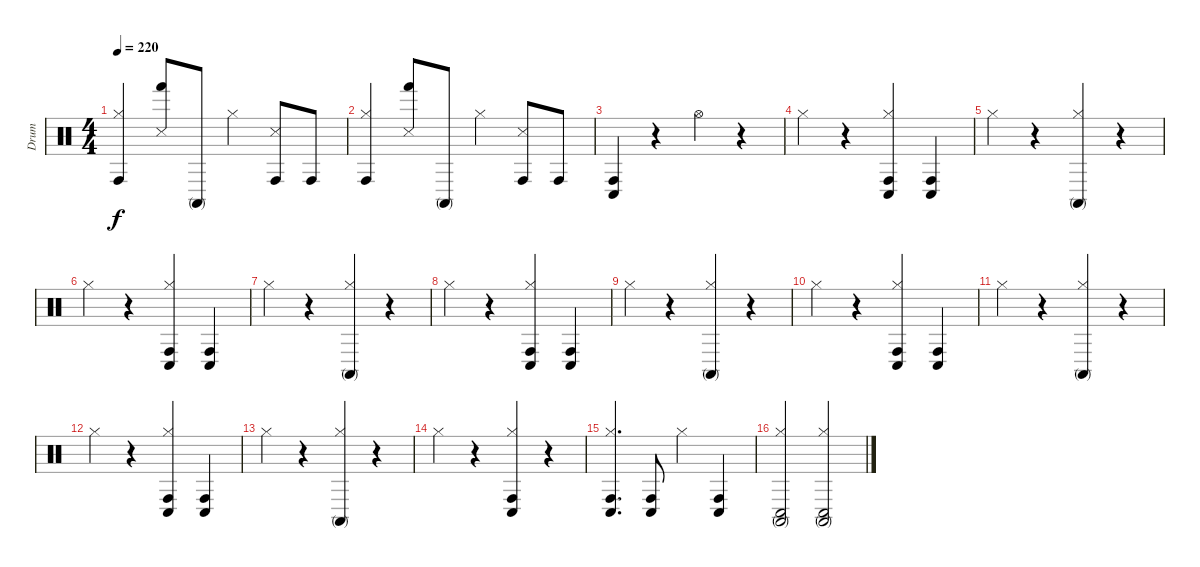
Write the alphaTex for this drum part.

\track ("Drum" "Drum") {instrument percussion}
\staff {score}
\articulation defaults
\ts (4 4)
\tempo 220
\clef neutral
\ks c
("Hi-Hat (closed)" "Conga high (hit)").4{dy f} ("Metronome (hit)" "Hand (hit)").8 "Conga high (mute)".8 "Hi-Hat (closed)".4 ("Metronome (hit)" "Conga high (hit)").8 "Conga high (hit)".8 |
("Hi-Hat (closed)" "Conga high (hit)").4 ("Metronome (hit)" "Hand (hit)").8 "Conga high (mute)".8 "Hi-Hat (closed)".4 ("Metronome (hit)" "Conga high (hit)").8 "Conga high (hit)".8 |
("Conga low (hit)" "Conga high (hit)").4 r.4 "Hi-Hat (open)".4 r.4 |
"Hi-Hat (closed)".4 r.4 ("Hi-Hat (closed)" "Conga low (hit)" "Conga high (hit)").4 ("Conga low (hit)" "Conga high (hit)").4 |
"Hi-Hat (closed)".4 r.4 ("Hi-Hat (closed)" "Conga high (mute)").4 r.4 |
"Hi-Hat (closed)".4 r.4 ("Hi-Hat (closed)" "Conga low (hit)" "Conga high (hit)").4 ("Conga low (hit)" "Conga high (hit)").4 |
"Hi-Hat (closed)".4 r.4 ("Hi-Hat (closed)" "Conga high (mute)").4 r.4 |
"Hi-Hat (closed)".4 r.4 ("Hi-Hat (closed)" "Conga low (hit)" "Conga high (hit)").4 ("Conga low (hit)" "Conga high (hit)").4 |
"Hi-Hat (closed)".4 r.4 ("Hi-Hat (closed)" "Conga high (mute)").4 r.4 |
"Hi-Hat (closed)".4 r.4 ("Hi-Hat (closed)" "Conga low (hit)" "Conga high (hit)").4 ("Conga low (hit)" "Conga high (hit)").4 |
"Hi-Hat (closed)".4 r.4 ("Hi-Hat (closed)" "Conga high (mute)").4 r.4 |
"Hi-Hat (closed)".4 r.4 ("Hi-Hat (closed)" "Conga low (hit)" "Conga high (hit)").4 ("Conga low (hit)" "Conga high (hit)").4 |
"Hi-Hat (closed)".4 r.4 ("Hi-Hat (closed)" "Conga high (mute)").4 r.4 |
"Hi-Hat (closed)".4 r.4 ("Hi-Hat (closed)" "Conga low (hit)" "Conga high (hit)").4 r.4 |
("Hi-Hat (closed)" "Conga low (hit)" "Conga high (hit)").4{d} ("Conga low (hit)" "Conga high (hit)").8 "Hi-Hat (closed)".4 ("Conga low (hit)" "Conga high (hit)").4 |
("Hi-Hat (closed)" "Conga low (hit)" "Conga high (mute)").2 ("Hi-Hat (closed)" "Conga low (hit)" "Conga high (mute)").2
